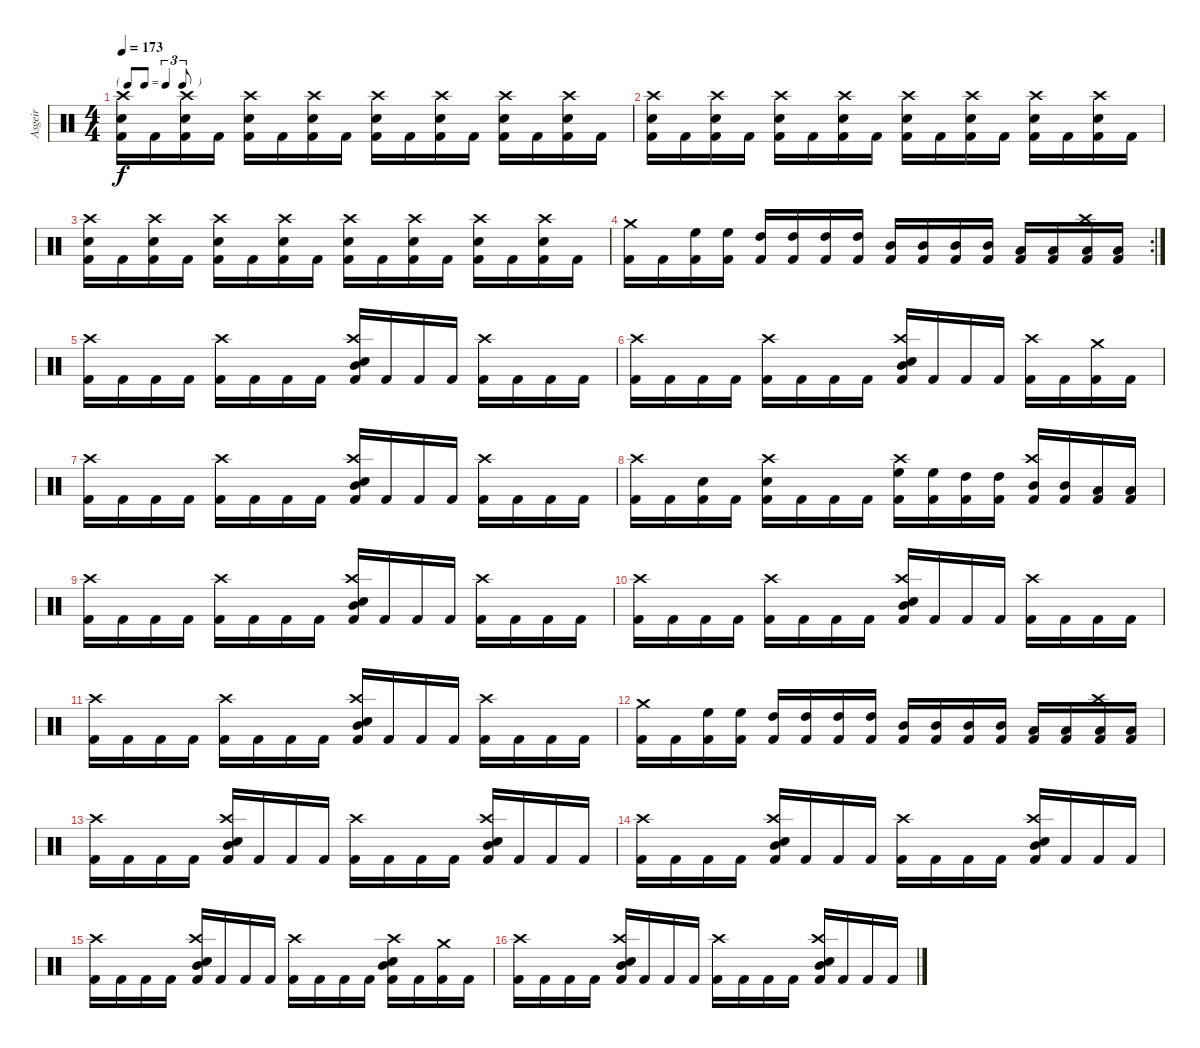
\track ("Asgeir" "Asgeir") {instrument percussion}
\staff {score}
\articulation defaults
\ts (4 4)
\tf triplet8th
\tempo 173
\clef neutral
\ks c
("Kick (hit) 2" "Snare (hit) 2" "Crash high (hit)").16{dy f} "Kick (hit) 2".16 ("Kick (hit) 2" "Snare (hit) 2" "Crash high (hit)").16 "Kick (hit) 2".16 ("Kick (hit) 2" "Snare (hit) 2" "Crash high (hit)").16 "Kick (hit) 2".16 ("Kick (hit) 2" "Snare (hit) 2" "Crash high (hit)").16 "Kick (hit) 2".16 ("Kick (hit) 2" "Snare (hit) 2" "Crash high (hit)").16 "Kick (hit) 2".16 ("Kick (hit) 2" "Snare (hit) 2" "Crash high (hit)").16 "Kick (hit) 2".16 ("Kick (hit) 2" "Snare (hit) 2" "Crash high (hit)").16 "Kick (hit) 2".16 ("Kick (hit) 2" "Snare (hit) 2" "Crash high (hit)").16 "Kick (hit) 2".16 |
("Kick (hit) 2" "Snare (hit) 2" "Crash high (hit)").16 "Kick (hit) 2".16 ("Kick (hit) 2" "Snare (hit) 2" "Crash high (hit)").16 "Kick (hit) 2".16 ("Kick (hit) 2" "Snare (hit) 2" "Crash high (hit)").16 "Kick (hit) 2".16 ("Kick (hit) 2" "Snare (hit) 2" "Crash high (hit)").16 "Kick (hit) 2".16 ("Kick (hit) 2" "Snare (hit) 2" "Crash high (hit)").16 "Kick (hit) 2".16 ("Kick (hit) 2" "Snare (hit) 2" "Crash high (hit)").16 "Kick (hit) 2".16 ("Kick (hit) 2" "Snare (hit) 2" "Crash high (hit)").16 "Kick (hit) 2".16 ("Kick (hit) 2" "Snare (hit) 2" "Crash high (hit)").16 "Kick (hit) 2".16 |
("Kick (hit) 2" "Snare (hit) 2" "Crash high (hit)").16 "Kick (hit) 2".16 ("Kick (hit) 2" "Snare (hit) 2" "Crash high (hit)").16 "Kick (hit) 2".16 ("Kick (hit) 2" "Snare (hit) 2" "Crash high (hit)").16 "Kick (hit) 2".16 ("Kick (hit) 2" "Snare (hit) 2" "Crash high (hit)").16 "Kick (hit) 2".16 ("Kick (hit) 2" "Snare (hit) 2" "Crash high (hit)").16 "Kick (hit) 2".16 ("Kick (hit) 2" "Snare (hit) 2" "Crash high (hit)").16 "Kick (hit) 2".16 ("Kick (hit) 2" "Snare (hit) 2" "Crash high (hit)").16 "Kick (hit) 2".16 ("Kick (hit) 2" "Snare (hit) 2" "Crash high (hit)").16 "Kick (hit) 2".16 |
\rc 2
("Kick (hit) 2" "Crash medium (hit)").16 "Kick (hit) 2".16 ("Kick (hit) 2" "High Floor Tom (hit)").16 ("Kick (hit) 2" "High Floor Tom (hit)").16 ("Kick (hit) 2" "High Tom (hit)").16 ("Kick (hit) 2" "High Tom (hit)").16 ("Kick (hit) 2" "High Tom (hit)").16 ("Kick (hit) 2" "High Tom (hit)").16 ("Kick (hit) 2" "Mid Tom (hit)").16 ("Kick (hit) 2" "Mid Tom (hit)").16 ("Kick (hit) 2" "Mid Tom (hit)").16 ("Kick (hit) 2" "Mid Tom (hit)").16 ("Kick (hit) 2" "Low Tom (hit)").16 ("Kick (hit) 2" "Low Tom (hit)").16 ("Kick (hit) 2" "Low Tom (hit)" "Crash high (hit)").16 ("Kick (hit) 2" "Low Tom (hit)").16 |
("Kick (hit) 2" "Crash high (hit)").16 "Kick (hit) 2".16 "Kick (hit) 2".16 "Kick (hit) 2".16 ("Kick (hit) 2" "Crash high (hit)").16 "Kick (hit) 2".16 "Kick (hit) 2".16 "Kick (hit) 2".16 ("Kick (hit) 2" "Mid Tom (hit)" "Snare (hit) 2" "Crash high (hit)").16 "Kick (hit) 2".16 "Kick (hit) 2".16 "Kick (hit) 2".16 ("Kick (hit) 2" "Crash high (hit)").16 "Kick (hit) 2".16 "Kick (hit) 2".16 "Kick (hit) 2".16 |
("Kick (hit) 2" "Crash high (hit)").16 "Kick (hit) 2".16 "Kick (hit) 2".16 "Kick (hit) 2".16 ("Kick (hit) 2" "Crash high (hit)").16 "Kick (hit) 2".16 "Kick (hit) 2".16 "Kick (hit) 2".16 ("Kick (hit) 2" "Mid Tom (hit)" "Snare (hit) 2" "Crash high (hit)").16 "Kick (hit) 2".16 "Kick (hit) 2".16 "Kick (hit) 2".16 ("Kick (hit) 2" "Crash high (hit)").16 "Kick (hit) 2".16 ("Kick (hit) 2" "Crash medium (hit)").16 "Kick (hit) 2".16 |
("Kick (hit) 2" "Crash high (hit)").16 "Kick (hit) 2".16 "Kick (hit) 2".16 "Kick (hit) 2".16 ("Kick (hit) 2" "Crash high (hit)").16 "Kick (hit) 2".16 "Kick (hit) 2".16 "Kick (hit) 2".16 ("Kick (hit) 2" "Mid Tom (hit)" "Snare (hit) 2" "Crash high (hit)").16 "Kick (hit) 2".16 "Kick (hit) 2".16 "Kick (hit) 2".16 ("Kick (hit) 2" "Crash high (hit)").16 "Kick (hit) 2".16 "Kick (hit) 2".16 "Kick (hit) 2".16 |
("Kick (hit) 2" "Crash high (hit)").16 "Kick (hit) 2".16 ("Kick (hit) 2" "Snare (hit) 2").16 "Kick (hit) 2".16 ("Kick (hit) 2" "Snare (hit) 2" "Crash high (hit)").16 "Kick (hit) 2".16 "Kick (hit) 2".16 "Kick (hit) 2".16 ("Kick (hit) 2" "High Floor Tom (hit)" "Crash high (hit)").16 ("Kick (hit) 2" "High Floor Tom (hit)").16 ("Kick (hit) 2" "High Tom (hit)").16 ("Kick (hit) 2" "High Tom (hit)").16 ("Kick (hit) 2" "Mid Tom (hit)" "Crash high (hit)").16 ("Kick (hit) 2" "Mid Tom (hit)").16 ("Kick (hit) 2" "Low Tom (hit)").16 ("Kick (hit) 2" "Low Tom (hit)").16 |
("Kick (hit) 2" "Crash high (hit)").16 "Kick (hit) 2".16 "Kick (hit) 2".16 "Kick (hit) 2".16 ("Kick (hit) 2" "Crash high (hit)").16 "Kick (hit) 2".16 "Kick (hit) 2".16 "Kick (hit) 2".16 ("Kick (hit) 2" "Mid Tom (hit)" "Snare (hit) 2" "Crash high (hit)").16 "Kick (hit) 2".16 "Kick (hit) 2".16 "Kick (hit) 2".16 ("Kick (hit) 2" "Crash high (hit)").16 "Kick (hit) 2".16 "Kick (hit) 2".16 "Kick (hit) 2".16 |
("Kick (hit) 2" "Crash high (hit)").16 "Kick (hit) 2".16 "Kick (hit) 2".16 "Kick (hit) 2".16 ("Kick (hit) 2" "Crash high (hit)").16 "Kick (hit) 2".16 "Kick (hit) 2".16 "Kick (hit) 2".16 ("Kick (hit) 2" "Mid Tom (hit)" "Snare (hit) 2" "Crash high (hit)").16 "Kick (hit) 2".16 "Kick (hit) 2".16 "Kick (hit) 2".16 ("Kick (hit) 2" "Crash high (hit)").16 "Kick (hit) 2".16 "Kick (hit) 2".16 "Kick (hit) 2".16 |
("Kick (hit) 2" "Crash high (hit)").16 "Kick (hit) 2".16 "Kick (hit) 2".16 "Kick (hit) 2".16 ("Kick (hit) 2" "Crash high (hit)").16 "Kick (hit) 2".16 "Kick (hit) 2".16 "Kick (hit) 2".16 ("Kick (hit) 2" "Mid Tom (hit)" "Snare (hit) 2" "Crash high (hit)").16 "Kick (hit) 2".16 "Kick (hit) 2".16 "Kick (hit) 2".16 ("Kick (hit) 2" "Crash high (hit)").16 "Kick (hit) 2".16 "Kick (hit) 2".16 "Kick (hit) 2".16 |
("Kick (hit) 2" "Crash medium (hit)").16 "Kick (hit) 2".16 ("Kick (hit) 2" "High Floor Tom (hit)").16 ("Kick (hit) 2" "High Floor Tom (hit)").16 ("Kick (hit) 2" "High Tom (hit)").16 ("Kick (hit) 2" "High Tom (hit)").16 ("Kick (hit) 2" "High Tom (hit)").16 ("Kick (hit) 2" "High Tom (hit)").16 ("Kick (hit) 2" "Mid Tom (hit)").16 ("Kick (hit) 2" "Mid Tom (hit)").16 ("Kick (hit) 2" "Mid Tom (hit)").16 ("Kick (hit) 2" "Mid Tom (hit)").16 ("Kick (hit) 2" "Low Tom (hit)").16 ("Kick (hit) 2" "Low Tom (hit)").16 ("Kick (hit) 2" "Low Tom (hit)" "Crash high (hit)").16 ("Kick (hit) 2" "Low Tom (hit)").16 |
("Kick (hit) 2" "Crash high (hit)").16 "Kick (hit) 2".16 "Kick (hit) 2".16 "Kick (hit) 2".16 ("Kick (hit) 2" "Mid Tom (hit)" "Snare (hit) 2" "Crash high (hit)").16 "Kick (hit) 2".16 "Kick (hit) 2".16 "Kick (hit) 2".16 ("Kick (hit) 2" "Crash high (hit)").16 "Kick (hit) 2".16 "Kick (hit) 2".16 "Kick (hit) 2".16 ("Kick (hit) 2" "Mid Tom (hit)" "Snare (hit) 2" "Crash high (hit)").16 "Kick (hit) 2".16 "Kick (hit) 2".16 "Kick (hit) 2".16 |
("Kick (hit) 2" "Crash high (hit)").16 "Kick (hit) 2".16 "Kick (hit) 2".16 "Kick (hit) 2".16 ("Kick (hit) 2" "Mid Tom (hit)" "Snare (hit) 2" "Crash high (hit)").16 "Kick (hit) 2".16 "Kick (hit) 2".16 "Kick (hit) 2".16 ("Kick (hit) 2" "Crash high (hit)").16 "Kick (hit) 2".16 "Kick (hit) 2".16 "Kick (hit) 2".16 ("Kick (hit) 2" "Mid Tom (hit)" "Snare (hit) 2" "Crash high (hit)").16 "Kick (hit) 2".16 "Kick (hit) 2".16 "Kick (hit) 2".16 |
("Kick (hit) 2" "Crash high (hit)").16 "Kick (hit) 2".16 "Kick (hit) 2".16 "Kick (hit) 2".16 ("Kick (hit) 2" "Mid Tom (hit)" "Snare (hit) 2" "Crash high (hit)").16 "Kick (hit) 2".16 "Kick (hit) 2".16 "Kick (hit) 2".16 ("Kick (hit) 2" "Crash high (hit)").16 "Kick (hit) 2".16 "Kick (hit) 2".16 "Kick (hit) 2".16 ("Kick (hit) 2" "Mid Tom (hit)" "Snare (hit) 2" "Crash high (hit)").16 "Kick (hit) 2".16 ("Kick (hit) 2" "Crash medium (hit)").16 "Kick (hit) 2".16 |
("Kick (hit) 2" "Crash high (hit)").16 "Kick (hit) 2".16 "Kick (hit) 2".16 "Kick (hit) 2".16 ("Kick (hit) 2" "Mid Tom (hit)" "Snare (hit) 2" "Crash high (hit)").16 "Kick (hit) 2".16 "Kick (hit) 2".16 "Kick (hit) 2".16 ("Kick (hit) 2" "Crash high (hit)").16 "Kick (hit) 2".16 "Kick (hit) 2".16 "Kick (hit) 2".16 ("Kick (hit) 2" "Mid Tom (hit)" "Snare (hit) 2" "Crash high (hit)").16 "Kick (hit) 2".16 "Kick (hit) 2".16 "Kick (hit) 2".16
